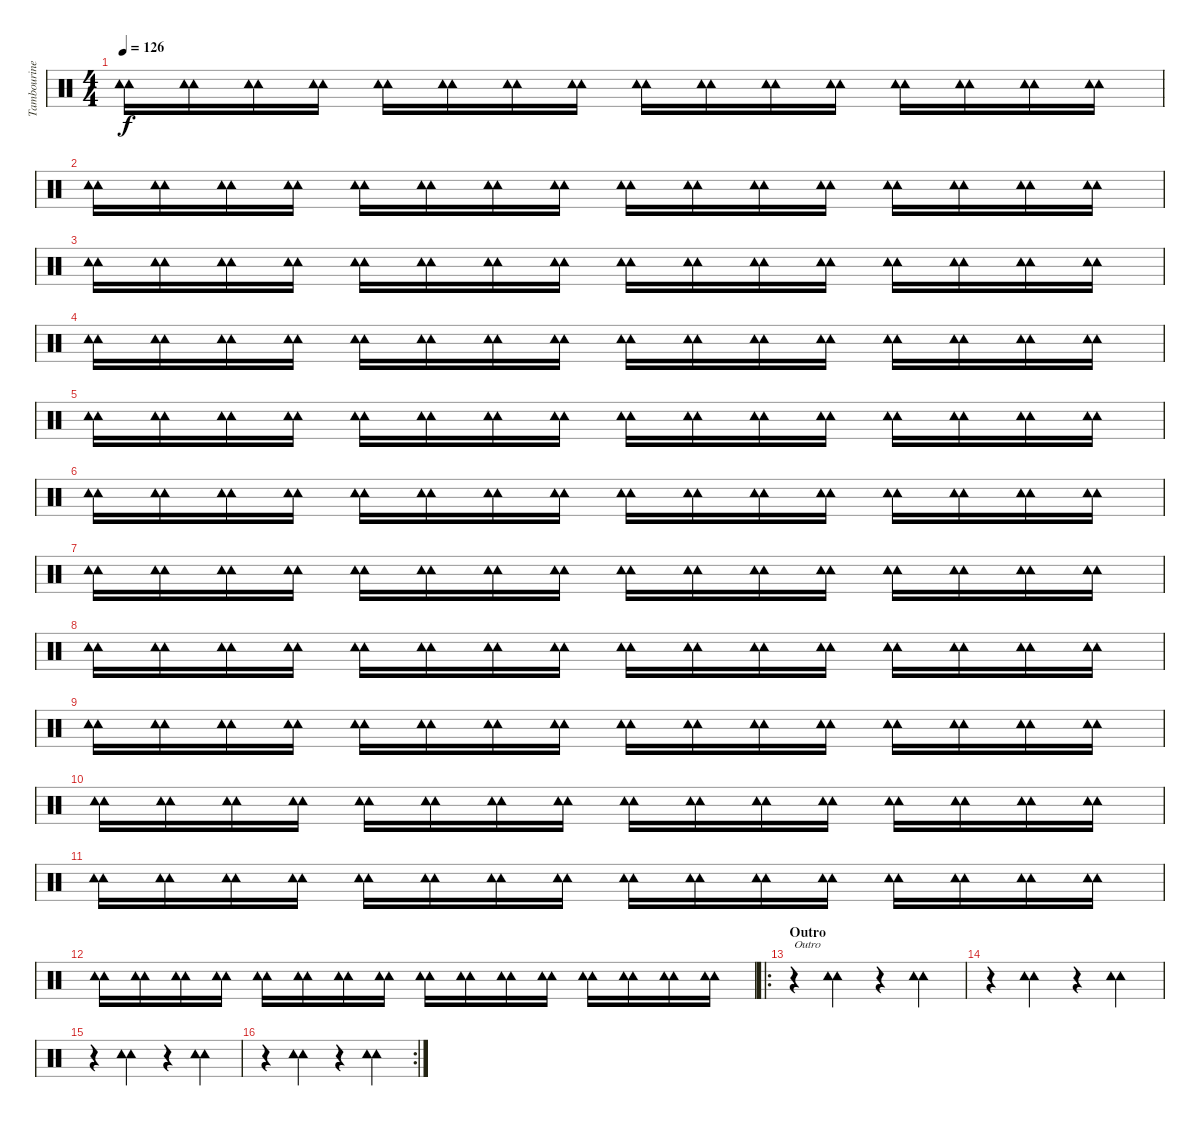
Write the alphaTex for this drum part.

\track ("Tambourine" "Tambourine") {instrument percussion}
\staff {score}
\articulation defaults
\ts (4 4)
\tempo 126
\clef neutral
\ks c
("Tambourine (hit)" "Tambourine (hit)").16{dy f} ("Tambourine (hit)" "Tambourine (hit)").16 ("Tambourine (hit)" "Tambourine (hit)").16 ("Tambourine (hit)" "Tambourine (hit)").16 ("Tambourine (hit)" "Tambourine (hit)").16 ("Tambourine (hit)" "Tambourine (hit)").16 ("Tambourine (hit)" "Tambourine (hit)").16 ("Tambourine (hit)" "Tambourine (hit)").16 ("Tambourine (hit)" "Tambourine (hit)").16 ("Tambourine (hit)" "Tambourine (hit)").16 ("Tambourine (hit)" "Tambourine (hit)").16 ("Tambourine (hit)" "Tambourine (hit)").16 ("Tambourine (hit)" "Tambourine (hit)").16 ("Tambourine (hit)" "Tambourine (hit)").16 ("Tambourine (hit)" "Tambourine (hit)").16 ("Tambourine (hit)" "Tambourine (hit)").16 |
("Tambourine (hit)" "Tambourine (hit)").16 ("Tambourine (hit)" "Tambourine (hit)").16 ("Tambourine (hit)" "Tambourine (hit)").16 ("Tambourine (hit)" "Tambourine (hit)").16 ("Tambourine (hit)" "Tambourine (hit)").16 ("Tambourine (hit)" "Tambourine (hit)").16 ("Tambourine (hit)" "Tambourine (hit)").16 ("Tambourine (hit)" "Tambourine (hit)").16 ("Tambourine (hit)" "Tambourine (hit)").16 ("Tambourine (hit)" "Tambourine (hit)").16 ("Tambourine (hit)" "Tambourine (hit)").16 ("Tambourine (hit)" "Tambourine (hit)").16 ("Tambourine (hit)" "Tambourine (hit)").16 ("Tambourine (hit)" "Tambourine (hit)").16 ("Tambourine (hit)" "Tambourine (hit)").16 ("Tambourine (hit)" "Tambourine (hit)").16 |
("Tambourine (hit)" "Tambourine (hit)").16 ("Tambourine (hit)" "Tambourine (hit)").16 ("Tambourine (hit)" "Tambourine (hit)").16 ("Tambourine (hit)" "Tambourine (hit)").16 ("Tambourine (hit)" "Tambourine (hit)").16 ("Tambourine (hit)" "Tambourine (hit)").16 ("Tambourine (hit)" "Tambourine (hit)").16 ("Tambourine (hit)" "Tambourine (hit)").16 ("Tambourine (hit)" "Tambourine (hit)").16 ("Tambourine (hit)" "Tambourine (hit)").16 ("Tambourine (hit)" "Tambourine (hit)").16 ("Tambourine (hit)" "Tambourine (hit)").16 ("Tambourine (hit)" "Tambourine (hit)").16 ("Tambourine (hit)" "Tambourine (hit)").16 ("Tambourine (hit)" "Tambourine (hit)").16 ("Tambourine (hit)" "Tambourine (hit)").16 |
("Tambourine (hit)" "Tambourine (hit)").16 ("Tambourine (hit)" "Tambourine (hit)").16 ("Tambourine (hit)" "Tambourine (hit)").16 ("Tambourine (hit)" "Tambourine (hit)").16 ("Tambourine (hit)" "Tambourine (hit)").16 ("Tambourine (hit)" "Tambourine (hit)").16 ("Tambourine (hit)" "Tambourine (hit)").16 ("Tambourine (hit)" "Tambourine (hit)").16 ("Tambourine (hit)" "Tambourine (hit)").16 ("Tambourine (hit)" "Tambourine (hit)").16 ("Tambourine (hit)" "Tambourine (hit)").16 ("Tambourine (hit)" "Tambourine (hit)").16 ("Tambourine (hit)" "Tambourine (hit)").16 ("Tambourine (hit)" "Tambourine (hit)").16 ("Tambourine (hit)" "Tambourine (hit)").16 ("Tambourine (hit)" "Tambourine (hit)").16 |
("Tambourine (hit)" "Tambourine (hit)").16 ("Tambourine (hit)" "Tambourine (hit)").16 ("Tambourine (hit)" "Tambourine (hit)").16 ("Tambourine (hit)" "Tambourine (hit)").16 ("Tambourine (hit)" "Tambourine (hit)").16 ("Tambourine (hit)" "Tambourine (hit)").16 ("Tambourine (hit)" "Tambourine (hit)").16 ("Tambourine (hit)" "Tambourine (hit)").16 ("Tambourine (hit)" "Tambourine (hit)").16 ("Tambourine (hit)" "Tambourine (hit)").16 ("Tambourine (hit)" "Tambourine (hit)").16 ("Tambourine (hit)" "Tambourine (hit)").16 ("Tambourine (hit)" "Tambourine (hit)").16 ("Tambourine (hit)" "Tambourine (hit)").16 ("Tambourine (hit)" "Tambourine (hit)").16 ("Tambourine (hit)" "Tambourine (hit)").16 |
("Tambourine (hit)" "Tambourine (hit)").16 ("Tambourine (hit)" "Tambourine (hit)").16 ("Tambourine (hit)" "Tambourine (hit)").16 ("Tambourine (hit)" "Tambourine (hit)").16 ("Tambourine (hit)" "Tambourine (hit)").16 ("Tambourine (hit)" "Tambourine (hit)").16 ("Tambourine (hit)" "Tambourine (hit)").16 ("Tambourine (hit)" "Tambourine (hit)").16 ("Tambourine (hit)" "Tambourine (hit)").16 ("Tambourine (hit)" "Tambourine (hit)").16 ("Tambourine (hit)" "Tambourine (hit)").16 ("Tambourine (hit)" "Tambourine (hit)").16 ("Tambourine (hit)" "Tambourine (hit)").16 ("Tambourine (hit)" "Tambourine (hit)").16 ("Tambourine (hit)" "Tambourine (hit)").16 ("Tambourine (hit)" "Tambourine (hit)").16 |
("Tambourine (hit)" "Tambourine (hit)").16 ("Tambourine (hit)" "Tambourine (hit)").16 ("Tambourine (hit)" "Tambourine (hit)").16 ("Tambourine (hit)" "Tambourine (hit)").16 ("Tambourine (hit)" "Tambourine (hit)").16 ("Tambourine (hit)" "Tambourine (hit)").16 ("Tambourine (hit)" "Tambourine (hit)").16 ("Tambourine (hit)" "Tambourine (hit)").16 ("Tambourine (hit)" "Tambourine (hit)").16 ("Tambourine (hit)" "Tambourine (hit)").16 ("Tambourine (hit)" "Tambourine (hit)").16 ("Tambourine (hit)" "Tambourine (hit)").16 ("Tambourine (hit)" "Tambourine (hit)").16 ("Tambourine (hit)" "Tambourine (hit)").16 ("Tambourine (hit)" "Tambourine (hit)").16 ("Tambourine (hit)" "Tambourine (hit)").16 |
("Tambourine (hit)" "Tambourine (hit)").16 ("Tambourine (hit)" "Tambourine (hit)").16 ("Tambourine (hit)" "Tambourine (hit)").16 ("Tambourine (hit)" "Tambourine (hit)").16 ("Tambourine (hit)" "Tambourine (hit)").16 ("Tambourine (hit)" "Tambourine (hit)").16 ("Tambourine (hit)" "Tambourine (hit)").16 ("Tambourine (hit)" "Tambourine (hit)").16 ("Tambourine (hit)" "Tambourine (hit)").16 ("Tambourine (hit)" "Tambourine (hit)").16 ("Tambourine (hit)" "Tambourine (hit)").16 ("Tambourine (hit)" "Tambourine (hit)").16 ("Tambourine (hit)" "Tambourine (hit)").16 ("Tambourine (hit)" "Tambourine (hit)").16 ("Tambourine (hit)" "Tambourine (hit)").16 ("Tambourine (hit)" "Tambourine (hit)").16 |
("Tambourine (hit)" "Tambourine (hit)").16 ("Tambourine (hit)" "Tambourine (hit)").16 ("Tambourine (hit)" "Tambourine (hit)").16 ("Tambourine (hit)" "Tambourine (hit)").16 ("Tambourine (hit)" "Tambourine (hit)").16 ("Tambourine (hit)" "Tambourine (hit)").16 ("Tambourine (hit)" "Tambourine (hit)").16 ("Tambourine (hit)" "Tambourine (hit)").16 ("Tambourine (hit)" "Tambourine (hit)").16 ("Tambourine (hit)" "Tambourine (hit)").16 ("Tambourine (hit)" "Tambourine (hit)").16 ("Tambourine (hit)" "Tambourine (hit)").16 ("Tambourine (hit)" "Tambourine (hit)").16 ("Tambourine (hit)" "Tambourine (hit)").16 ("Tambourine (hit)" "Tambourine (hit)").16 ("Tambourine (hit)" "Tambourine (hit)").16 |
("Tambourine (hit)" "Tambourine (hit)").16 ("Tambourine (hit)" "Tambourine (hit)").16 ("Tambourine (hit)" "Tambourine (hit)").16 ("Tambourine (hit)" "Tambourine (hit)").16 ("Tambourine (hit)" "Tambourine (hit)").16 ("Tambourine (hit)" "Tambourine (hit)").16 ("Tambourine (hit)" "Tambourine (hit)").16 ("Tambourine (hit)" "Tambourine (hit)").16 ("Tambourine (hit)" "Tambourine (hit)").16 ("Tambourine (hit)" "Tambourine (hit)").16 ("Tambourine (hit)" "Tambourine (hit)").16 ("Tambourine (hit)" "Tambourine (hit)").16 ("Tambourine (hit)" "Tambourine (hit)").16 ("Tambourine (hit)" "Tambourine (hit)").16 ("Tambourine (hit)" "Tambourine (hit)").16 ("Tambourine (hit)" "Tambourine (hit)").16 |
("Tambourine (hit)" "Tambourine (hit)").16 ("Tambourine (hit)" "Tambourine (hit)").16 ("Tambourine (hit)" "Tambourine (hit)").16 ("Tambourine (hit)" "Tambourine (hit)").16 ("Tambourine (hit)" "Tambourine (hit)").16 ("Tambourine (hit)" "Tambourine (hit)").16 ("Tambourine (hit)" "Tambourine (hit)").16 ("Tambourine (hit)" "Tambourine (hit)").16 ("Tambourine (hit)" "Tambourine (hit)").16 ("Tambourine (hit)" "Tambourine (hit)").16 ("Tambourine (hit)" "Tambourine (hit)").16 ("Tambourine (hit)" "Tambourine (hit)").16 ("Tambourine (hit)" "Tambourine (hit)").16 ("Tambourine (hit)" "Tambourine (hit)").16 ("Tambourine (hit)" "Tambourine (hit)").16 ("Tambourine (hit)" "Tambourine (hit)").16 |
("Tambourine (hit)" "Tambourine (hit)").16 ("Tambourine (hit)" "Tambourine (hit)").16 ("Tambourine (hit)" "Tambourine (hit)").16 ("Tambourine (hit)" "Tambourine (hit)").16 ("Tambourine (hit)" "Tambourine (hit)").16 ("Tambourine (hit)" "Tambourine (hit)").16 ("Tambourine (hit)" "Tambourine (hit)").16 ("Tambourine (hit)" "Tambourine (hit)").16 ("Tambourine (hit)" "Tambourine (hit)").16 ("Tambourine (hit)" "Tambourine (hit)").16 ("Tambourine (hit)" "Tambourine (hit)").16 ("Tambourine (hit)" "Tambourine (hit)").16 ("Tambourine (hit)" "Tambourine (hit)").16 ("Tambourine (hit)" "Tambourine (hit)").16 ("Tambourine (hit)" "Tambourine (hit)").16 ("Tambourine (hit)" "Tambourine (hit)").16 |
\ro
\section ("" "Outro")
r.4{txt "Outro"} ("Tambourine (hit)" "Tambourine (hit)").4 r.4 ("Tambourine (hit)" "Tambourine (hit)").4 |
r.4 ("Tambourine (hit)" "Tambourine (hit)").4 r.4 ("Tambourine (hit)" "Tambourine (hit)").4 |
r.4 ("Tambourine (hit)" "Tambourine (hit)").4 r.4 ("Tambourine (hit)" "Tambourine (hit)").4 |
\rc 2
r.4 ("Tambourine (hit)" "Tambourine (hit)").4 r.4 ("Tambourine (hit)" "Tambourine (hit)").4
